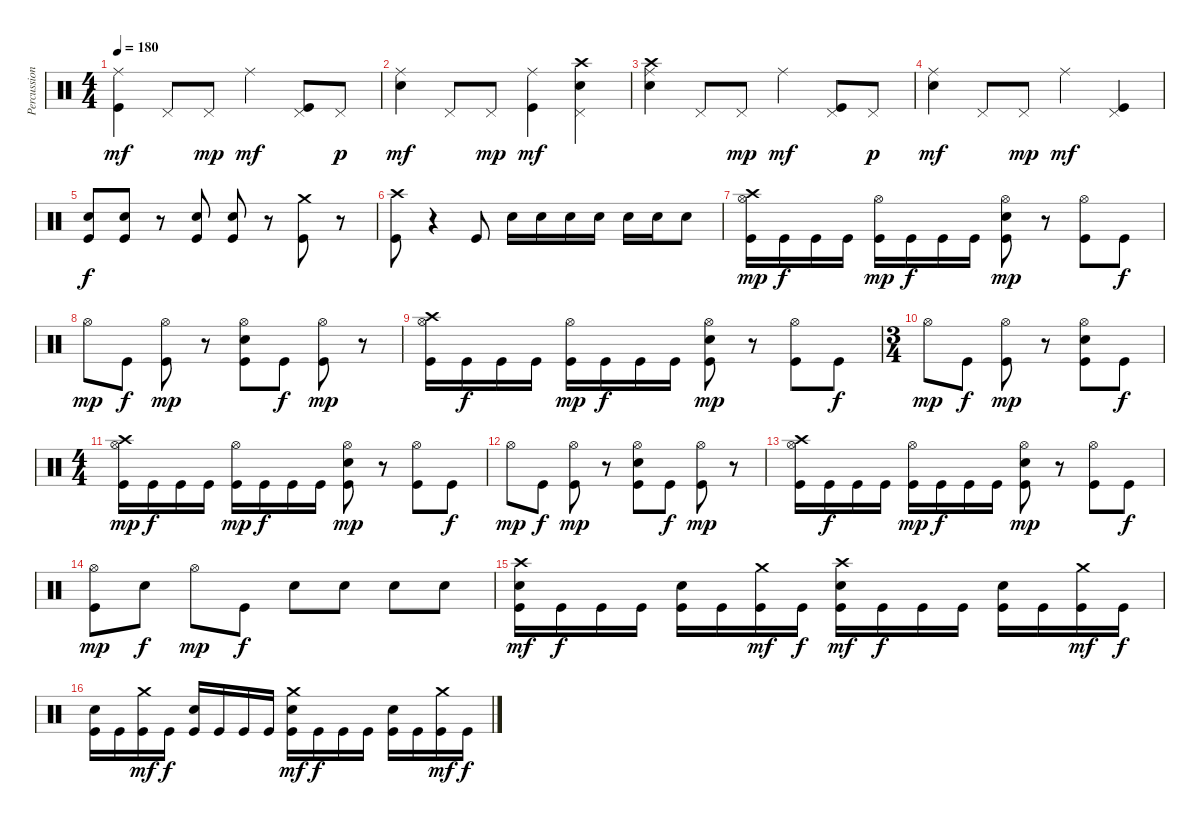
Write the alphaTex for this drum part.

\track ("Percussion" "Percussion") {instrument percussion}
\staff {score}
\articulation defaults
\ts (4 4)
\tempo 180
\clef neutral
\ks c
("Ride (middle)" "Kick (hit)").4{dy mf} "Pedal Hi-Hat (hit)".8 "Pedal Hi-Hat (hit)".8{dy mp} "Ride (middle)".4{dy mf} ("Pedal Hi-Hat (hit)" "Kick (hit)").8 "Pedal Hi-Hat (hit)".8{dy p} |
("Ride (middle)" "Snare (hit) 2").4{dy mf} "Pedal Hi-Hat (hit)".8 "Pedal Hi-Hat (hit)".8{dy mp} ("Ride (middle)" "Kick (hit)").4{dy mf} ("Crash high (hit)" "Pedal Hi-Hat (hit)" "Snare (hit) 2").4 |
("Crash high (hit)" "Ride (middle)" "Snare (hit) 2").4 "Pedal Hi-Hat (hit)".8 "Pedal Hi-Hat (hit)".8{dy mp} "Ride (middle)".4{dy mf} ("Pedal Hi-Hat (hit)" "Kick (hit)").8 "Pedal Hi-Hat (hit)".8{dy p} |
("Ride (middle)" "Snare (hit) 2").4{dy mf} "Pedal Hi-Hat (hit)".8 "Pedal Hi-Hat (hit)".8{dy mp} "Ride (middle)".4{dy mf} ("Pedal Hi-Hat (hit)" "Kick (hit)").4 |
("Snare (hit) 2" "Kick (hit)").8{dy f} ("Snare (hit) 2" "Kick (hit)").8 r.8 ("Snare (hit) 2" "Kick (hit)").8 ("Snare (hit) 2" "Kick (hit)").8 r.8 ("Crash medium (hit)" "Kick (hit)").8 r.8 |
("Crash high (hit)" "Kick (hit)").8 r.4 "Kick (hit)".8 "Snare (hit) 2".16 "Snare (hit) 2".16 "Snare (hit) 2".16 "Snare (hit) 2".16 "Snare (hit) 2".16 "Snare (hit) 2".16 "Snare (hit) 2".8 |
("Crash high (hit)" "Hi-Hat (open)" "Kick (hit)").16{dy mp} "Kick (hit)".16{dy f} "Kick (hit)".16 "Kick (hit)".16 ("Hi-Hat (open)" "Kick (hit)").16{dy mp} "Kick (hit)".16{dy f} "Kick (hit)".16 "Kick (hit)".16 ("Hi-Hat (open)" "Snare (hit) 2" "Kick (hit)").8{dy mp} r.8 ("Hi-Hat (open)" "Kick (hit)").8 "Kick (hit)".8{dy f} |
"Hi-Hat (open)".8{dy mp} "Kick (hit)".8{dy f} ("Hi-Hat (open)" "Kick (hit)").8{dy mp} r.8 ("Hi-Hat (open)" "Snare (hit) 2" "Kick (hit)").8 "Kick (hit)".8{dy f} ("Hi-Hat (open)" "Kick (hit)").8{dy mp} r.8 |
("Crash high (hit)" "Hi-Hat (open)" "Kick (hit)").16 "Kick (hit)".16{dy f} "Kick (hit)".16 "Kick (hit)".16 ("Hi-Hat (open)" "Kick (hit)").16{dy mp} "Kick (hit)".16{dy f} "Kick (hit)".16 "Kick (hit)".16 ("Hi-Hat (open)" "Snare (hit) 2" "Kick (hit)").8{dy mp} r.8 ("Hi-Hat (open)" "Kick (hit)").8 "Kick (hit)".8{dy f} |
\ts (3 4)
"Hi-Hat (open)".8{dy mp} "Kick (hit)".8{dy f} ("Hi-Hat (open)" "Kick (hit)").8{dy mp} r.8 ("Hi-Hat (open)" "Snare (hit) 2" "Kick (hit)").8 "Kick (hit)".8{dy f} |
\ts (4 4)
("Crash high (hit)" "Hi-Hat (open)" "Kick (hit)").16{dy mp} "Kick (hit)".16{dy f} "Kick (hit)".16 "Kick (hit)".16 ("Hi-Hat (open)" "Kick (hit)").16{dy mp} "Kick (hit)".16{dy f} "Kick (hit)".16 "Kick (hit)".16 ("Hi-Hat (open)" "Snare (hit) 2" "Kick (hit)").8{dy mp} r.8 ("Hi-Hat (open)" "Kick (hit)").8 "Kick (hit)".8{dy f} |
"Hi-Hat (open)".8{dy mp} "Kick (hit)".8{dy f} ("Hi-Hat (open)" "Kick (hit)").8{dy mp} r.8 ("Hi-Hat (open)" "Snare (hit) 2" "Kick (hit)").8 "Kick (hit)".8{dy f} ("Hi-Hat (open)" "Kick (hit)").8{dy mp} r.8 |
("Crash high (hit)" "Hi-Hat (open)" "Kick (hit)").16 "Kick (hit)".16{dy f} "Kick (hit)".16 "Kick (hit)".16 ("Hi-Hat (open)" "Kick (hit)").16{dy mp} "Kick (hit)".16{dy f} "Kick (hit)".16 "Kick (hit)".16 ("Hi-Hat (open)" "Snare (hit) 2" "Kick (hit)").8{dy mp} r.8 ("Hi-Hat (open)" "Kick (hit)").8 "Kick (hit)".8{dy f} |
("Hi-Hat (open)" "Kick (hit)").8{dy mp} "Snare (hit) 2".8{dy f} "Hi-Hat (open)".8{dy mp} "Kick (hit)".8{dy f} "Snare (hit) 2".8 "Snare (hit) 2".8 "Snare (hit) 2".8 "Snare (hit) 2".8 |
("Crash high (hit)" "Snare (hit) 2" "Kick (hit)").16{dy mf} "Kick (hit)".16{dy f} "Kick (hit)".16 "Kick (hit)".16 ("Snare (hit) 2" "Kick (hit)").16 "Kick (hit)".16 ("Crash medium (hit)" "Kick (hit)").16{dy mf} "Kick (hit)".16{dy f} ("Crash high (hit)" "Snare (hit) 2" "Kick (hit)").16{dy mf} "Kick (hit)".16{dy f} "Kick (hit)".16 "Kick (hit)".16 ("Snare (hit) 2" "Kick (hit)").16 "Kick (hit)".16 ("Crash medium (hit)" "Kick (hit)").16{dy mf} "Kick (hit)".16{dy f} |
("Snare (hit) 2" "Kick (hit)").16 "Kick (hit)".16 ("Crash medium (hit)" "Kick (hit)").16{dy mf} "Kick (hit)".16{dy f} ("Snare (hit) 2" "Kick (hit)").16 "Kick (hit)".16 "Kick (hit)".16 "Kick (hit)".16 ("Crash medium (hit)" "Snare (hit) 2" "Kick (hit)").16{dy mf} "Kick (hit)".16{dy f} "Kick (hit)".16 "Kick (hit)".16 ("Snare (hit) 2" "Kick (hit)").16 "Kick (hit)".16 ("Crash medium (hit)" "Kick (hit)").16{dy mf} "Kick (hit)".16{dy f}
